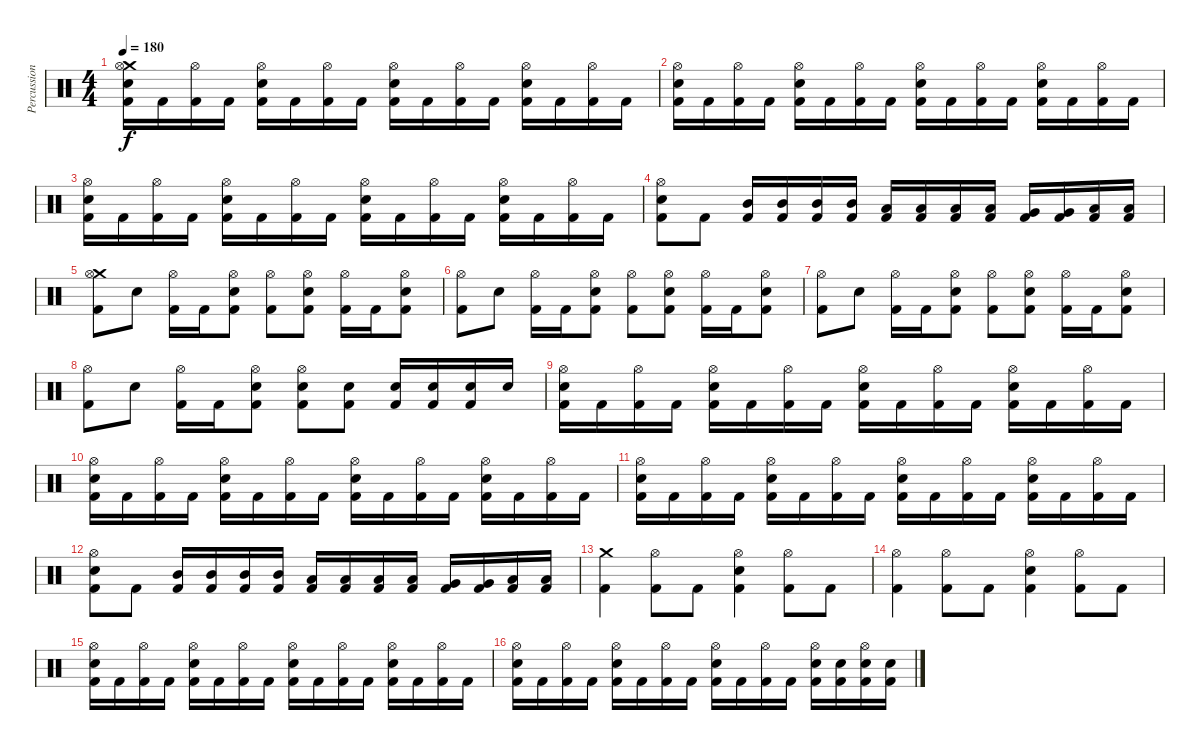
\track ("Percussion" "Percussion") {instrument percussion}
\staff {score}
\articulation defaults
\ts (4 4)
\tempo 180
\clef neutral
\ks c
("Crash medium (hit)" "Hi-Hat (open)" "Snare (hit) 2" "Kick (hit) 2").16{dy f} "Kick (hit) 2".16 ("Hi-Hat (open)" "Kick (hit) 2").16 "Kick (hit) 2".16 ("Hi-Hat (open)" "Snare (hit) 2" "Kick (hit) 2").16 "Kick (hit) 2".16 ("Hi-Hat (open)" "Kick (hit) 2").16 "Kick (hit) 2".16 ("Hi-Hat (open)" "Snare (hit) 2" "Kick (hit) 2").16 "Kick (hit) 2".16 ("Hi-Hat (open)" "Kick (hit) 2").16 "Kick (hit) 2".16 ("Hi-Hat (open)" "Snare (hit) 2" "Kick (hit) 2").16 "Kick (hit) 2".16 ("Hi-Hat (open)" "Kick (hit) 2").16 "Kick (hit) 2".16 |
("Hi-Hat (open)" "Snare (hit) 2" "Kick (hit) 2").16 "Kick (hit) 2".16 ("Hi-Hat (open)" "Kick (hit) 2").16 "Kick (hit) 2".16 ("Hi-Hat (open)" "Snare (hit) 2" "Kick (hit) 2").16 "Kick (hit) 2".16 ("Hi-Hat (open)" "Kick (hit) 2").16 "Kick (hit) 2".16 ("Hi-Hat (open)" "Snare (hit) 2" "Kick (hit) 2").16 "Kick (hit) 2".16 ("Hi-Hat (open)" "Kick (hit) 2").16 "Kick (hit) 2".16 ("Hi-Hat (open)" "Snare (hit) 2" "Kick (hit) 2").16 "Kick (hit) 2".16 ("Hi-Hat (open)" "Kick (hit) 2").16 "Kick (hit) 2".16 |
("Hi-Hat (open)" "Snare (hit) 2" "Kick (hit) 2").16 "Kick (hit) 2".16 ("Hi-Hat (open)" "Kick (hit) 2").16 "Kick (hit) 2".16 ("Hi-Hat (open)" "Snare (hit) 2" "Kick (hit) 2").16 "Kick (hit) 2".16 ("Hi-Hat (open)" "Kick (hit) 2").16 "Kick (hit) 2".16 ("Hi-Hat (open)" "Snare (hit) 2" "Kick (hit) 2").16 "Kick (hit) 2".16 ("Hi-Hat (open)" "Kick (hit) 2").16 "Kick (hit) 2".16 ("Hi-Hat (open)" "Snare (hit) 2" "Kick (hit) 2").16 "Kick (hit) 2".16 ("Hi-Hat (open)" "Kick (hit) 2").16 "Kick (hit) 2".16 |
("Hi-Hat (open)" "Snare (hit) 2" "Kick (hit) 2").8 "Kick (hit) 2".8 ("Mid Tom (hit)" "Kick (hit) 2").16 ("Mid Tom (hit)" "Kick (hit) 2").16 ("Mid Tom (hit)" "Kick (hit) 2").16 ("Mid Tom (hit)" "Kick (hit) 2").16 ("Low Tom (hit)" "Kick (hit) 2").16 ("Low Tom (hit)" "Kick (hit) 2").16 ("Low Tom (hit)" "Kick (hit) 2").16 ("Low Tom (hit)" "Kick (hit) 2").16 ("Very Low Tom (hit)" "Kick (hit) 2").16 ("Very Low Tom (hit)" "Kick (hit) 2").16 ("Low Floor Tom (hit)" "Kick (hit) 2").16 ("Low Floor Tom (hit)" "Kick (hit) 2").16 |
("Crash medium (hit)" "Hi-Hat (open)" "Kick (hit) 2").8 "Snare (hit) 2".8 ("Hi-Hat (open)" "Kick (hit) 2").16 "Kick (hit) 2".16 ("Hi-Hat (open)" "Snare (hit) 2" "Kick (hit) 2").8 ("Hi-Hat (open)" "Kick (hit) 2").8 ("Hi-Hat (open)" "Snare (hit) 2" "Kick (hit) 2").8 ("Hi-Hat (open)" "Kick (hit) 2").16 "Kick (hit) 2".16 ("Hi-Hat (open)" "Snare (hit) 2" "Kick (hit) 2").8 |
("Hi-Hat (open)" "Kick (hit) 2").8 "Snare (hit) 2".8 ("Hi-Hat (open)" "Kick (hit) 2").16 "Kick (hit) 2".16 ("Hi-Hat (open)" "Snare (hit) 2" "Kick (hit) 2").8 ("Hi-Hat (open)" "Kick (hit) 2").8 ("Hi-Hat (open)" "Snare (hit) 2" "Kick (hit) 2").8 ("Hi-Hat (open)" "Kick (hit) 2").16 "Kick (hit) 2".16 ("Hi-Hat (open)" "Snare (hit) 2" "Kick (hit) 2").8 |
("Hi-Hat (open)" "Kick (hit) 2").8 "Snare (hit) 2".8 ("Hi-Hat (open)" "Kick (hit) 2").16 "Kick (hit) 2".16 ("Hi-Hat (open)" "Snare (hit) 2" "Kick (hit) 2").8 ("Hi-Hat (open)" "Kick (hit) 2").8 ("Hi-Hat (open)" "Snare (hit) 2" "Kick (hit) 2").8 ("Hi-Hat (open)" "Kick (hit) 2").16 "Kick (hit) 2".16 ("Hi-Hat (open)" "Snare (hit) 2" "Kick (hit) 2").8 |
("Hi-Hat (open)" "Kick (hit) 2").8 "Snare (hit) 2".8 ("Hi-Hat (open)" "Kick (hit) 2").16 "Kick (hit) 2".16 ("Hi-Hat (open)" "Snare (hit) 2" "Kick (hit) 2").8 ("Hi-Hat (open)" "Snare (hit) 2" "Kick (hit) 2").8 ("Snare (hit) 2" "Kick (hit) 2").8 ("Snare (hit) 2" "Kick (hit) 2").16 ("Snare (hit) 2" "Kick (hit) 2").16 ("Snare (hit) 2" "Kick (hit) 2").16 "Snare (hit) 2".16 |
("Hi-Hat (open)" "Snare (hit) 2" "Kick (hit) 2").16 "Kick (hit) 2".16 ("Hi-Hat (open)" "Kick (hit) 2").16 "Kick (hit) 2".16 ("Hi-Hat (open)" "Snare (hit) 2" "Kick (hit) 2").16 "Kick (hit) 2".16 ("Hi-Hat (open)" "Kick (hit) 2").16 "Kick (hit) 2".16 ("Hi-Hat (open)" "Snare (hit) 2" "Kick (hit) 2").16 "Kick (hit) 2".16 ("Hi-Hat (open)" "Kick (hit) 2").16 "Kick (hit) 2".16 ("Hi-Hat (open)" "Snare (hit) 2" "Kick (hit) 2").16 "Kick (hit) 2".16 ("Hi-Hat (open)" "Kick (hit) 2").16 "Kick (hit) 2".16 |
("Hi-Hat (open)" "Snare (hit) 2" "Kick (hit) 2").16 "Kick (hit) 2".16 ("Hi-Hat (open)" "Kick (hit) 2").16 "Kick (hit) 2".16 ("Hi-Hat (open)" "Snare (hit) 2" "Kick (hit) 2").16 "Kick (hit) 2".16 ("Hi-Hat (open)" "Kick (hit) 2").16 "Kick (hit) 2".16 ("Hi-Hat (open)" "Snare (hit) 2" "Kick (hit) 2").16 "Kick (hit) 2".16 ("Hi-Hat (open)" "Kick (hit) 2").16 "Kick (hit) 2".16 ("Hi-Hat (open)" "Snare (hit) 2" "Kick (hit) 2").16 "Kick (hit) 2".16 ("Hi-Hat (open)" "Kick (hit) 2").16 "Kick (hit) 2".16 |
("Hi-Hat (open)" "Snare (hit) 2" "Kick (hit) 2").16 "Kick (hit) 2".16 ("Hi-Hat (open)" "Kick (hit) 2").16 "Kick (hit) 2".16 ("Hi-Hat (open)" "Snare (hit) 2" "Kick (hit) 2").16 "Kick (hit) 2".16 ("Hi-Hat (open)" "Kick (hit) 2").16 "Kick (hit) 2".16 ("Hi-Hat (open)" "Snare (hit) 2" "Kick (hit) 2").16 "Kick (hit) 2".16 ("Hi-Hat (open)" "Kick (hit) 2").16 "Kick (hit) 2".16 ("Hi-Hat (open)" "Snare (hit) 2" "Kick (hit) 2").16 "Kick (hit) 2".16 ("Hi-Hat (open)" "Kick (hit) 2").16 "Kick (hit) 2".16 |
("Hi-Hat (open)" "Snare (hit) 2" "Kick (hit) 2").8 "Kick (hit) 2".8 ("Mid Tom (hit)" "Kick (hit) 2").16 ("Mid Tom (hit)" "Kick (hit) 2").16 ("Mid Tom (hit)" "Kick (hit) 2").16 ("Mid Tom (hit)" "Kick (hit) 2").16 ("Low Tom (hit)" "Kick (hit) 2").16 ("Low Tom (hit)" "Kick (hit) 2").16 ("Low Tom (hit)" "Kick (hit) 2").16 ("Low Tom (hit)" "Kick (hit) 2").16 ("Very Low Tom (hit)" "Kick (hit) 2").16 ("Very Low Tom (hit)" "Kick (hit) 2").16 ("Low Floor Tom (hit)" "Kick (hit) 2").16 ("Low Floor Tom (hit)" "Kick (hit) 2").16 |
("Crash medium (hit)" "Kick (hit) 2").4 ("Hi-Hat (open)" "Kick (hit) 2").8 "Kick (hit) 2".8 ("Hi-Hat (open)" "Snare (hit) 2" "Kick (hit) 2").4 ("Hi-Hat (open)" "Kick (hit) 2").8 "Kick (hit) 2".8 |
("Hi-Hat (open)" "Kick (hit) 2").4 ("Hi-Hat (open)" "Kick (hit) 2").8 "Kick (hit) 2".8 ("Hi-Hat (open)" "Snare (hit) 2" "Kick (hit) 2").4 ("Hi-Hat (open)" "Kick (hit) 2").8 "Kick (hit) 2".8 |
("Hi-Hat (open)" "Snare (hit) 2" "Kick (hit) 2").16 "Kick (hit) 2".16 ("Hi-Hat (open)" "Kick (hit) 2").16 "Kick (hit) 2".16 ("Hi-Hat (open)" "Snare (hit) 2" "Kick (hit) 2").16 "Kick (hit) 2".16 ("Hi-Hat (open)" "Kick (hit) 2").16 "Kick (hit) 2".16 ("Hi-Hat (open)" "Snare (hit) 2" "Kick (hit) 2").16 "Kick (hit) 2".16 ("Hi-Hat (open)" "Kick (hit) 2").16 "Kick (hit) 2".16 ("Hi-Hat (open)" "Snare (hit) 2" "Kick (hit) 2").16 "Kick (hit) 2".16 ("Hi-Hat (open)" "Kick (hit) 2").16 "Kick (hit) 2".16 |
("Hi-Hat (open)" "Snare (hit) 2" "Kick (hit) 2").16 "Kick (hit) 2".16 ("Hi-Hat (open)" "Kick (hit) 2").16 "Kick (hit) 2".16 ("Hi-Hat (open)" "Snare (hit) 2" "Kick (hit) 2").16 "Kick (hit) 2".16 ("Hi-Hat (open)" "Kick (hit) 2").16 "Kick (hit) 2".16 ("Hi-Hat (open)" "Snare (hit) 2" "Kick (hit) 2").16 "Kick (hit) 2".16 ("Hi-Hat (open)" "Kick (hit) 2").16 "Kick (hit) 2".16 ("Hi-Hat (open)" "Snare (hit) 2" "Kick (hit) 2").16 ("Snare (hit) 2" "Kick (hit) 2").16 ("Hi-Hat (open)" "Snare (hit) 2" "Kick (hit) 2").16 ("Snare (hit) 2" "Kick (hit) 2").16
